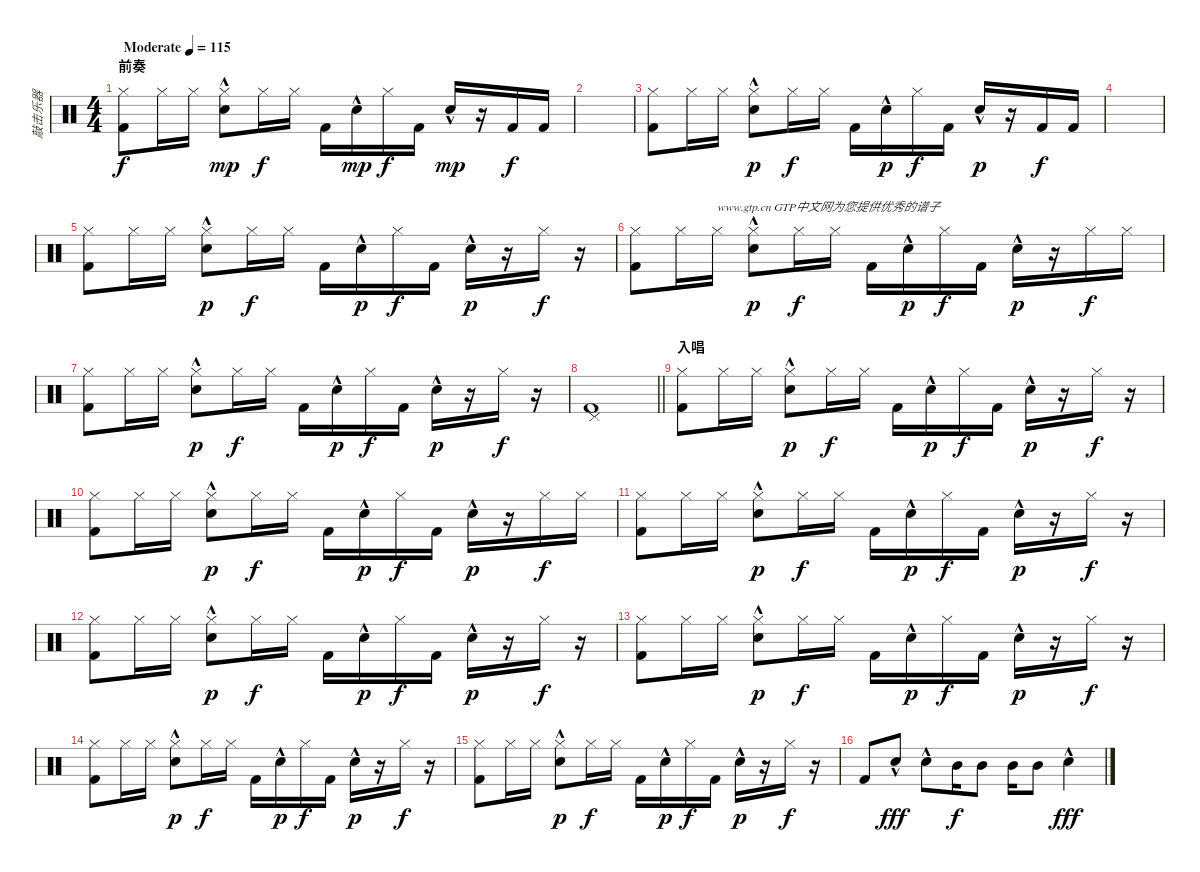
\track ("敲击乐器" "敲击乐器") {instrument percussion}
\staff {score}
\articulation defaults
\ts (4 4)
\section ("" "前奏")
\tempo (115 "Moderate")
\clef neutral
\ks c
("Hi-Hat (closed)" "Kick (hit) 2").8{dy f} "Hi-Hat (closed)".16 "Hi-Hat (closed)".16 ("Hi-Hat (closed)" "Electric Snare (hit)"{hac}).8{dy mp} "Hi-Hat (closed)".16{dy f} "Hi-Hat (closed)".16 "Kick (hit) 2".16 "Electric Snare (hit)"{hac}.16{dy mp} "Hi-Hat (closed)".16{dy f} "Kick (hit) 2".16 "Electric Snare (hit)"{hac}.16{dy mp} r.16 "Kick (hit) 2".16{dy f} "Kick (hit) 2".16 |
|
("Hi-Hat (closed)" "Kick (hit) 2").8 "Hi-Hat (closed)".16 "Hi-Hat (closed)".16 ("Hi-Hat (closed)" "Electric Snare (hit)"{hac}).8{dy p} "Hi-Hat (closed)".16{dy f} "Hi-Hat (closed)".16 "Kick (hit) 2".16 "Electric Snare (hit)"{hac}.16{dy p} "Hi-Hat (closed)".16{dy f} "Kick (hit) 2".16 "Electric Snare (hit)"{hac}.16{dy p} r.16 "Kick (hit) 2".16{dy f} "Kick (hit) 2".16 |
|
("Hi-Hat (closed)" "Kick (hit) 2").8 "Hi-Hat (closed)".16 "Hi-Hat (closed)".16 ("Hi-Hat (closed)" "Electric Snare (hit)"{hac}).8{dy p} "Hi-Hat (closed)".16{dy f} "Hi-Hat (closed)".16 "Kick (hit) 2".16 "Electric Snare (hit)"{hac}.16{dy p} "Hi-Hat (closed)".16{dy f} "Kick (hit) 2".16 "Electric Snare (hit)"{hac}.16{dy p} r.16 "Hi-Hat (closed)".16{dy f} r.16 |
("Hi-Hat (closed)" "Kick (hit) 2").8 "Hi-Hat (closed)".16 "Hi-Hat (closed)".16{txt "www.gtp.cn GTP中文网为您提供优秀的谱子"} ("Hi-Hat (closed)" "Electric Snare (hit)"{hac}).8{dy p} "Hi-Hat (closed)".16{dy f} "Hi-Hat (closed)".16 "Kick (hit) 2".16 "Electric Snare (hit)"{hac}.16{dy p} "Hi-Hat (closed)".16{dy f} "Kick (hit) 2".16 "Electric Snare (hit)"{hac}.16{dy p} r.16 "Hi-Hat (closed)".16{dy f} "Hi-Hat (closed)".16 |
("Hi-Hat (closed)" "Kick (hit) 2").8 "Hi-Hat (closed)".16 "Hi-Hat (closed)".16 ("Hi-Hat (closed)" "Electric Snare (hit)"{hac}).8{dy p} "Hi-Hat (closed)".16{dy f} "Hi-Hat (closed)".16 "Kick (hit) 2".16 "Electric Snare (hit)"{hac}.16{dy p} "Hi-Hat (closed)".16{dy f} "Kick (hit) 2".16 "Electric Snare (hit)"{hac}.16{dy p} r.16 "Hi-Hat (closed)".16{dy f} r.16 |
\barLineRight lightlight
("Pedal Hi-Hat (hit)" "Kick (hit) 2").1 |
\section ("" "入唱")
("Hi-Hat (closed)" "Kick (hit) 2").8 "Hi-Hat (closed)".16 "Hi-Hat (closed)".16 ("Hi-Hat (closed)" "Electric Snare (hit)"{hac}).8{dy p} "Hi-Hat (closed)".16{dy f} "Hi-Hat (closed)".16 "Kick (hit) 2".16 "Electric Snare (hit)"{hac}.16{dy p} "Hi-Hat (closed)".16{dy f} "Kick (hit) 2".16 "Electric Snare (hit)"{hac}.16{dy p} r.16 "Hi-Hat (closed)".16{dy f} r.16 |
("Hi-Hat (closed)" "Kick (hit) 2").8 "Hi-Hat (closed)".16 "Hi-Hat (closed)".16 ("Hi-Hat (closed)" "Electric Snare (hit)"{hac}).8{dy p} "Hi-Hat (closed)".16{dy f} "Hi-Hat (closed)".16 "Kick (hit) 2".16 "Electric Snare (hit)"{hac}.16{dy p} "Hi-Hat (closed)".16{dy f} "Kick (hit) 2".16 "Electric Snare (hit)"{hac}.16{dy p} r.16 "Hi-Hat (closed)".16{dy f} "Hi-Hat (closed)".16 |
("Hi-Hat (closed)" "Kick (hit) 2").8 "Hi-Hat (closed)".16 "Hi-Hat (closed)".16 ("Hi-Hat (closed)" "Electric Snare (hit)"{hac}).8{dy p} "Hi-Hat (closed)".16{dy f} "Hi-Hat (closed)".16 "Kick (hit) 2".16 "Electric Snare (hit)"{hac}.16{dy p} "Hi-Hat (closed)".16{dy f} "Kick (hit) 2".16 "Electric Snare (hit)"{hac}.16{dy p} r.16 "Hi-Hat (closed)".16{dy f} r.16 |
("Hi-Hat (closed)" "Kick (hit) 2").8 "Hi-Hat (closed)".16 "Hi-Hat (closed)".16 ("Hi-Hat (closed)" "Electric Snare (hit)"{hac}).8{dy p} "Hi-Hat (closed)".16{dy f} "Hi-Hat (closed)".16 "Kick (hit) 2".16 "Electric Snare (hit)"{hac}.16{dy p} "Hi-Hat (closed)".16{dy f} "Kick (hit) 2".16 "Electric Snare (hit)"{hac}.16{dy p} r.16 "Hi-Hat (closed)".16{dy f} r.16 |
("Hi-Hat (closed)" "Kick (hit) 2").8 "Hi-Hat (closed)".16 "Hi-Hat (closed)".16 ("Hi-Hat (closed)" "Electric Snare (hit)"{hac}).8{dy p} "Hi-Hat (closed)".16{dy f} "Hi-Hat (closed)".16 "Kick (hit) 2".16 "Electric Snare (hit)"{hac}.16{dy p} "Hi-Hat (closed)".16{dy f} "Kick (hit) 2".16 "Electric Snare (hit)"{hac}.16{dy p} r.16 "Hi-Hat (closed)".16{dy f} r.16 |
("Hi-Hat (closed)" "Kick (hit) 2").8 "Hi-Hat (closed)".16 "Hi-Hat (closed)".16 ("Hi-Hat (closed)" "Electric Snare (hit)"{hac}).8{dy p} "Hi-Hat (closed)".16{dy f} "Hi-Hat (closed)".16 "Kick (hit) 2".16 "Electric Snare (hit)"{hac}.16{dy p} "Hi-Hat (closed)".16{dy f} "Kick (hit) 2".16 "Electric Snare (hit)"{hac}.16{dy p} r.16 "Hi-Hat (closed)".16{dy f} r.16 |
("Hi-Hat (closed)" "Kick (hit) 2").8 "Hi-Hat (closed)".16 "Hi-Hat (closed)".16 ("Hi-Hat (closed)" "Electric Snare (hit)"{hac}).8{dy p} "Hi-Hat (closed)".16{dy f} "Hi-Hat (closed)".16 "Kick (hit) 2".16 "Electric Snare (hit)"{hac}.16{dy p} "Hi-Hat (closed)".16{dy f} "Kick (hit) 2".16 "Electric Snare (hit)"{hac}.16{dy p} r.16 "Hi-Hat (closed)".16{dy f} r.16 |
"Kick (hit) 2".8 "Electric Snare (hit)"{hac}.8{dy fff} "Electric Snare (hit)"{hac}.8 "Mid Tom (hit)".16{dy f} "Mid Tom (hit)".8 "Mid Tom (hit)".16 "Mid Tom (hit)".8 "Electric Snare (hit)"{hac}.4{dy fff}
